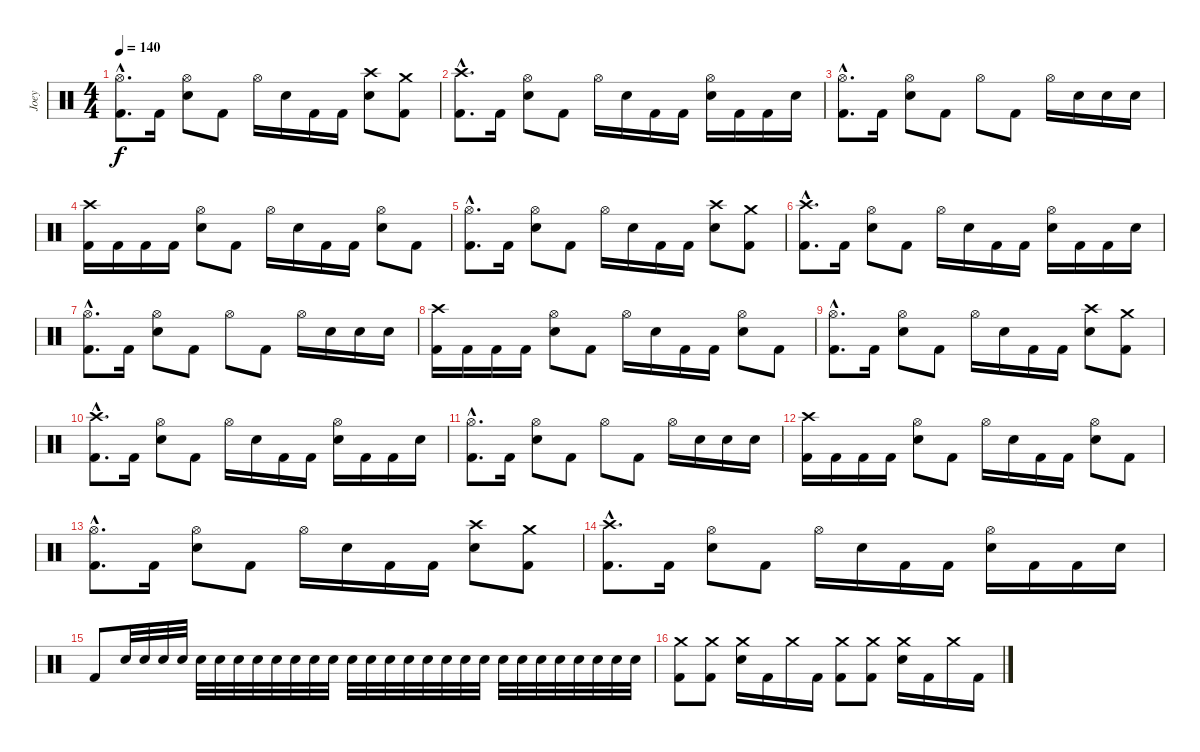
\track ("Joey" "Joey") {instrument percussion}
\staff {score}
\articulation defaults
\ts (4 4)
\tempo 140
\clef neutral
\ks c
("Hi-Hat (open)"{hac} "Kick (hit) 2"{hac}).8{d dy f} "Kick (hit) 2".16 ("Hi-Hat (open)" "Electric Snare (hit)").8 "Kick (hit) 2".8 "Hi-Hat (open)".16 "Electric Snare (hit)".16 "Kick (hit) 2".16 "Kick (hit) 2".16 ("Crash high (hit)" "Electric Snare (hit)").8 ("Crash medium (hit)" "Kick (hit) 2").8 |
("Crash high (hit)"{hac} "Kick (hit) 2"{hac}).8{d} "Kick (hit) 2".16 ("Hi-Hat (open)" "Electric Snare (hit)").8 "Kick (hit) 2".8 "Hi-Hat (open)".16 "Electric Snare (hit)".16 "Kick (hit) 2".16 "Kick (hit) 2".16 ("Hi-Hat (open)" "Electric Snare (hit)").16 "Kick (hit) 2".16 "Kick (hit) 2".16 "Electric Snare (hit)".16 |
("Hi-Hat (open)"{hac} "Kick (hit) 2"{hac}).8{d} "Kick (hit) 2".16 ("Hi-Hat (open)" "Electric Snare (hit)").8 "Kick (hit) 2".8 "Hi-Hat (open)".8 "Kick (hit) 2".8 "Hi-Hat (open)".16 "Electric Snare (hit)".16 "Electric Snare (hit)".16 "Electric Snare (hit)".16 |
("Crash high (hit)" "Kick (hit) 2").16 "Kick (hit) 2".16 "Kick (hit) 2".16 "Kick (hit) 2".16 ("Hi-Hat (open)" "Electric Snare (hit)").8 "Kick (hit) 2".8 "Hi-Hat (open)".16 "Electric Snare (hit)".16 "Kick (hit) 2".16 "Kick (hit) 2".16 ("Hi-Hat (open)" "Electric Snare (hit)").8 "Kick (hit) 2".8 |
("Hi-Hat (open)"{hac} "Kick (hit) 2"{hac}).8{d} "Kick (hit) 2".16 ("Hi-Hat (open)" "Electric Snare (hit)").8 "Kick (hit) 2".8 "Hi-Hat (open)".16 "Electric Snare (hit)".16 "Kick (hit) 2".16 "Kick (hit) 2".16 ("Crash high (hit)" "Electric Snare (hit)").8 ("Crash medium (hit)" "Kick (hit) 2").8 |
("Crash high (hit)"{hac} "Kick (hit) 2"{hac}).8{d} "Kick (hit) 2".16 ("Hi-Hat (open)" "Electric Snare (hit)").8 "Kick (hit) 2".8 "Hi-Hat (open)".16 "Electric Snare (hit)".16 "Kick (hit) 2".16 "Kick (hit) 2".16 ("Hi-Hat (open)" "Electric Snare (hit)").16 "Kick (hit) 2".16 "Kick (hit) 2".16 "Electric Snare (hit)".16 |
("Hi-Hat (open)"{hac} "Kick (hit) 2"{hac}).8{d} "Kick (hit) 2".16 ("Hi-Hat (open)" "Electric Snare (hit)").8 "Kick (hit) 2".8 "Hi-Hat (open)".8 "Kick (hit) 2".8 "Hi-Hat (open)".16 "Electric Snare (hit)".16 "Electric Snare (hit)".16 "Electric Snare (hit)".16 |
("Crash high (hit)" "Kick (hit) 2").16 "Kick (hit) 2".16 "Kick (hit) 2".16 "Kick (hit) 2".16 ("Hi-Hat (open)" "Electric Snare (hit)").8 "Kick (hit) 2".8 "Hi-Hat (open)".16 "Electric Snare (hit)".16 "Kick (hit) 2".16 "Kick (hit) 2".16 ("Hi-Hat (open)" "Electric Snare (hit)").8 "Kick (hit) 2".8 |
("Hi-Hat (open)"{hac} "Kick (hit) 2"{hac}).8{d} "Kick (hit) 2".16 ("Hi-Hat (open)" "Electric Snare (hit)").8 "Kick (hit) 2".8 "Hi-Hat (open)".16 "Electric Snare (hit)".16 "Kick (hit) 2".16 "Kick (hit) 2".16 ("Crash high (hit)" "Electric Snare (hit)").8 ("Crash medium (hit)" "Kick (hit) 2").8 |
("Crash high (hit)"{hac} "Kick (hit) 2"{hac}).8{d} "Kick (hit) 2".16 ("Hi-Hat (open)" "Electric Snare (hit)").8 "Kick (hit) 2".8 "Hi-Hat (open)".16 "Electric Snare (hit)".16 "Kick (hit) 2".16 "Kick (hit) 2".16 ("Hi-Hat (open)" "Electric Snare (hit)").16 "Kick (hit) 2".16 "Kick (hit) 2".16 "Electric Snare (hit)".16 |
("Hi-Hat (open)"{hac} "Kick (hit) 2"{hac}).8{d} "Kick (hit) 2".16 ("Hi-Hat (open)" "Electric Snare (hit)").8 "Kick (hit) 2".8 "Hi-Hat (open)".8 "Kick (hit) 2".8 "Hi-Hat (open)".16 "Electric Snare (hit)".16 "Electric Snare (hit)".16 "Electric Snare (hit)".16 |
("Crash high (hit)" "Kick (hit) 2").16 "Kick (hit) 2".16 "Kick (hit) 2".16 "Kick (hit) 2".16 ("Hi-Hat (open)" "Electric Snare (hit)").8 "Kick (hit) 2".8 "Hi-Hat (open)".16 "Electric Snare (hit)".16 "Kick (hit) 2".16 "Kick (hit) 2".16 ("Hi-Hat (open)" "Electric Snare (hit)").8 "Kick (hit) 2".8 |
("Hi-Hat (open)"{hac} "Kick (hit) 2"{hac}).8{d} "Kick (hit) 2".16 ("Hi-Hat (open)" "Electric Snare (hit)").8 "Kick (hit) 2".8 "Hi-Hat (open)".16 "Electric Snare (hit)".16 "Kick (hit) 2".16 "Kick (hit) 2".16 ("Crash high (hit)" "Electric Snare (hit)").8 ("Crash medium (hit)" "Kick (hit) 2").8 |
("Crash high (hit)"{hac} "Kick (hit) 2"{hac}).8{d} "Kick (hit) 2".16 ("Hi-Hat (open)" "Electric Snare (hit)").8 "Kick (hit) 2".8 "Hi-Hat (open)".16 "Electric Snare (hit)".16 "Kick (hit) 2".16 "Kick (hit) 2".16 ("Hi-Hat (open)" "Electric Snare (hit)").16 "Kick (hit) 2".16 "Kick (hit) 2".16 "Electric Snare (hit)".16 |
"Kick (hit) 2".8 "Electric Snare (hit)".32 "Electric Snare (hit)".32 "Electric Snare (hit)".32 "Electric Snare (hit)".32 "Electric Snare (hit)".32 "Electric Snare (hit)".32 "Electric Snare (hit)".32 "Electric Snare (hit)".32 "Electric Snare (hit)".32 "Electric Snare (hit)".32 "Electric Snare (hit)".32 "Electric Snare (hit)".32 "Electric Snare (hit)".32 "Electric Snare (hit)".32 "Electric Snare (hit)".32 "Electric Snare (hit)".32 "Electric Snare (hit)".32 "Electric Snare (hit)".32 "Electric Snare (hit)".32 "Electric Snare (hit)".32 "Electric Snare (hit)".32 "Electric Snare (hit)".32 "Electric Snare (hit)".32 "Electric Snare (hit)".32 "Electric Snare (hit)".32 "Electric Snare (hit)".32 "Electric Snare (hit)".32 "Electric Snare (hit)".32 |
("Crash medium (hit)" "Kick (hit) 2").8 ("Crash medium (hit)" "Kick (hit) 2").8 ("Crash medium (hit)" "Electric Snare (hit)").16 "Kick (hit) 2".16 "Crash medium (hit)".16 "Kick (hit) 2".16 ("Crash medium (hit)" "Kick (hit) 2").8 ("Crash medium (hit)" "Kick (hit) 2").8 ("Crash medium (hit)" "Electric Snare (hit)").16 "Kick (hit) 2".16 "Crash medium (hit)".16 "Kick (hit) 2".16
